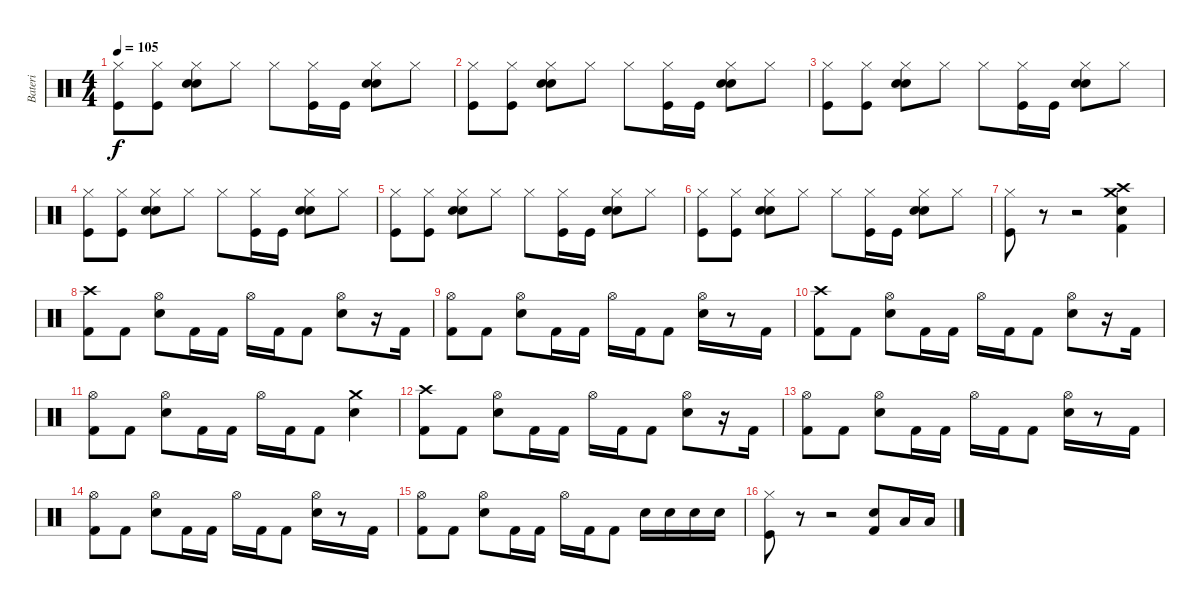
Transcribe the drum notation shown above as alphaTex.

\track ("Bateri" "Bateri") {instrument percussion}
\staff {score}
\articulation defaults
\ts (4 4)
\tempo 105
\clef neutral
\ks c
("Hi-Hat (closed)" "Kick (hit)").8{dy f} ("Hi-Hat (closed)" "Kick (hit)").8 ("Hi-Hat (closed)" "Hand Clap (hit)" "Snare (hit) 2").8 "Hi-Hat (closed)".8 "Hi-Hat (closed)".8 ("Hi-Hat (closed)" "Kick (hit)").16 "Kick (hit)".16 ("Hi-Hat (closed)" "Hand Clap (hit)" "Snare (hit) 2").8 "Hi-Hat (closed)".8 |
("Hi-Hat (closed)" "Kick (hit)").8 ("Hi-Hat (closed)" "Kick (hit)").8 ("Hi-Hat (closed)" "Hand Clap (hit)" "Snare (hit) 2").8 "Hi-Hat (closed)".8 "Hi-Hat (closed)".8 ("Hi-Hat (closed)" "Kick (hit)").16 "Kick (hit)".16 ("Hi-Hat (closed)" "Hand Clap (hit)" "Snare (hit) 2").8 "Hi-Hat (closed)".8 |
("Hi-Hat (closed)" "Kick (hit)").8 ("Hi-Hat (closed)" "Kick (hit)").8 ("Hi-Hat (closed)" "Hand Clap (hit)" "Snare (hit) 2").8 "Hi-Hat (closed)".8 "Hi-Hat (closed)".8 ("Hi-Hat (closed)" "Kick (hit)").16 "Kick (hit)".16 ("Hi-Hat (closed)" "Hand Clap (hit)" "Snare (hit) 2").8 "Hi-Hat (closed)".8 |
("Hi-Hat (closed)" "Kick (hit)").8 ("Hi-Hat (closed)" "Kick (hit)").8 ("Hi-Hat (closed)" "Hand Clap (hit)" "Snare (hit) 2").8 "Hi-Hat (closed)".8 "Hi-Hat (closed)".8 ("Hi-Hat (closed)" "Kick (hit)").16 "Kick (hit)".16 ("Hi-Hat (closed)" "Hand Clap (hit)" "Snare (hit) 2").8 "Hi-Hat (closed)".8 |
("Hi-Hat (closed)" "Kick (hit)").8 ("Hi-Hat (closed)" "Kick (hit)").8 ("Hi-Hat (closed)" "Hand Clap (hit)" "Snare (hit) 2").8 "Hi-Hat (closed)".8 "Hi-Hat (closed)".8 ("Hi-Hat (closed)" "Kick (hit)").16 "Kick (hit)".16 ("Hi-Hat (closed)" "Hand Clap (hit)" "Snare (hit) 2").8 "Hi-Hat (closed)".8 |
("Hi-Hat (closed)" "Kick (hit)").8 ("Hi-Hat (closed)" "Kick (hit)").8 ("Hi-Hat (closed)" "Hand Clap (hit)" "Snare (hit) 2").8 "Hi-Hat (closed)".8 "Hi-Hat (closed)".8 ("Hi-Hat (closed)" "Kick (hit)").16 "Kick (hit)".16 ("Hi-Hat (closed)" "Hand Clap (hit)" "Snare (hit) 2").8 "Hi-Hat (closed)".8 |
("Hi-Hat (closed)" "Kick (hit)").8 r.8 r.2 ("Crash medium (hit)" "Crash high (hit)" "Electric Snare (hit)" "Kick (hit) 2").4 |
("Crash high (hit)" "Kick (hit) 2").8 "Kick (hit) 2".8 ("Hi-Hat (open)" "Electric Snare (hit)").8 "Kick (hit) 2".16 "Kick (hit) 2".16 "Hi-Hat (open)".16 "Kick (hit) 2".16 "Kick (hit) 2".8 ("Hi-Hat (open)" "Electric Snare (hit)").8 r.16 "Kick (hit) 2".16 |
("Hi-Hat (open)" "Kick (hit) 2").8 "Kick (hit) 2".8 ("Hi-Hat (open)" "Electric Snare (hit)").8 "Kick (hit) 2".16 "Kick (hit) 2".16 "Hi-Hat (open)".16 "Kick (hit) 2".16 "Kick (hit) 2".8 ("Hi-Hat (open)" "Electric Snare (hit)").16 r.8 "Kick (hit) 2".16 |
("Crash high (hit)" "Kick (hit) 2").8 "Kick (hit) 2".8 ("Hi-Hat (open)" "Electric Snare (hit)").8 "Kick (hit) 2".16 "Kick (hit) 2".16 "Hi-Hat (open)".16 "Kick (hit) 2".16 "Kick (hit) 2".8 ("Hi-Hat (open)" "Electric Snare (hit)").8 r.16 "Kick (hit) 2".16 |
("Hi-Hat (open)" "Kick (hit) 2").8 "Kick (hit) 2".8 ("Hi-Hat (open)" "Electric Snare (hit)").8 "Kick (hit) 2".16 "Kick (hit) 2".16 "Hi-Hat (open)".16 "Kick (hit) 2".16 "Kick (hit) 2".8 ("Crash medium (hit)" "Electric Snare (hit)").4 |
("Crash high (hit)" "Kick (hit) 2").8 "Kick (hit) 2".8 ("Hi-Hat (open)" "Electric Snare (hit)").8 "Kick (hit) 2".16 "Kick (hit) 2".16 "Hi-Hat (open)".16 "Kick (hit) 2".16 "Kick (hit) 2".8 ("Hi-Hat (open)" "Electric Snare (hit)").8 r.16 "Kick (hit) 2".16 |
("Hi-Hat (open)" "Kick (hit) 2").8 "Kick (hit) 2".8 ("Hi-Hat (open)" "Electric Snare (hit)").8 "Kick (hit) 2".16 "Kick (hit) 2".16 "Hi-Hat (open)".16 "Kick (hit) 2".16 "Kick (hit) 2".8 ("Hi-Hat (open)" "Electric Snare (hit)").16 r.8 "Kick (hit) 2".16 |
("Hi-Hat (open)" "Kick (hit) 2").8 "Kick (hit) 2".8 ("Hi-Hat (open)" "Electric Snare (hit)").8 "Kick (hit) 2".16 "Kick (hit) 2".16 "Hi-Hat (open)".16 "Kick (hit) 2".16 "Kick (hit) 2".8 ("Hi-Hat (open)" "Electric Snare (hit)").16 r.8 "Kick (hit) 2".16 |
("Hi-Hat (open)" "Kick (hit) 2").8 "Kick (hit) 2".8 ("Hi-Hat (open)" "Electric Snare (hit)").8 "Kick (hit) 2".16 "Kick (hit) 2".16 "Hi-Hat (open)".16 "Kick (hit) 2".16 "Kick (hit) 2".8 "Electric Snare (hit)".16 "Electric Snare (hit)".16 "Electric Snare (hit)".16 "Electric Snare (hit)".16 |
("Hi-Hat (closed)" "Kick (hit)").8 r.8 r.2 ("Electric Snare (hit)" "Kick (hit) 2").8 "Low Tom (hit)".16 "Low Tom (hit)".16
